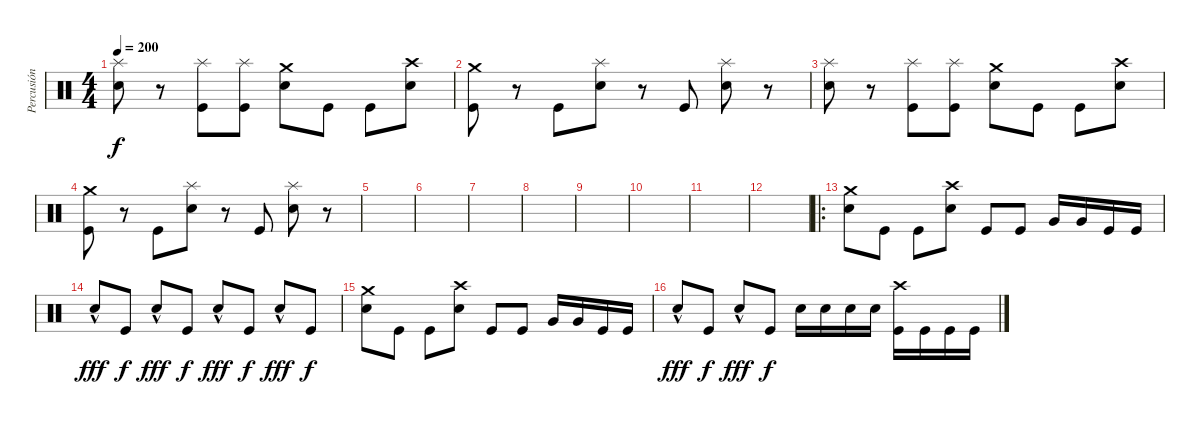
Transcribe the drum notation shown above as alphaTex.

\track ("Percusión" "Percusión") {instrument percussion}
\staff {score}
\articulation defaults
\ts (4 4)
\tempo 200
\clef neutral
\ks c
("Electric Snare (hit)" "Splash (hit)").8{dy f} r.8 ("Splash (hit)" "Kick (hit)").8 ("Splash (hit)" "Kick (hit)").8 ("Electric Snare (hit)" "Crash medium (hit)").8 "Kick (hit)".8 "Kick (hit)".8 ("Electric Snare (hit)" "Crash high (hit)").8 |
("Crash medium (hit)" "Kick (hit)").8 r.8 "Kick (hit)".8 ("Electric Snare (hit)" "Splash (hit)").8 r.8 "Kick (hit)".8 ("Electric Snare (hit)" "Splash (hit)").8 r.8 |
("Electric Snare (hit)" "Splash (hit)").8 r.8 ("Splash (hit)" "Kick (hit)").8 ("Splash (hit)" "Kick (hit)").8 ("Electric Snare (hit)" "Crash medium (hit)").8 "Kick (hit)".8 "Kick (hit)".8 ("Electric Snare (hit)" "Crash high (hit)").8 |
("Crash medium (hit)" "Kick (hit)").8 r.8 "Kick (hit)".8 ("Electric Snare (hit)" "Splash (hit)").8 r.8 "Kick (hit)".8 ("Electric Snare (hit)" "Splash (hit)").8 r.8 |
|
|
|
|
|
|
|
|
\ro
("Electric Snare (hit)" "Crash medium (hit)").8 "Kick (hit)".8 "Kick (hit)".8 ("Electric Snare (hit)" "Crash high (hit)").8 "Kick (hit)".8 "Kick (hit)".8 "Very Low Tom (hit)".16 "Very Low Tom (hit)".16 "Kick (hit)".16 "Kick (hit)".16 |
"Electric Snare (hit)"{hac}.8{dy fff} "Kick (hit)".8{dy f} "Electric Snare (hit)"{hac}.8{dy fff} "Kick (hit)".8{dy f} "Electric Snare (hit)"{hac}.8{dy fff} "Kick (hit)".8{dy f} "Electric Snare (hit)"{hac}.8{dy fff} "Kick (hit)".8{dy f} |
("Electric Snare (hit)" "Crash medium (hit)").8 "Kick (hit)".8 "Kick (hit)".8 ("Electric Snare (hit)" "Crash high (hit)").8 "Kick (hit)".8 "Kick (hit)".8 "Very Low Tom (hit)".16 "Very Low Tom (hit)".16 "Kick (hit)".16 "Kick (hit)".16 |
"Electric Snare (hit)"{hac}.8{dy fff} "Kick (hit)".8{dy f} "Electric Snare (hit)"{hac}.8{dy fff} "Kick (hit)".8{dy f} "Electric Snare (hit)".16 "Electric Snare (hit)".16 "Electric Snare (hit)".16 "Electric Snare (hit)".16 ("Crash high (hit)" "Kick (hit)").16 "Kick (hit)".16 "Kick (hit)".16 "Kick (hit)".16
